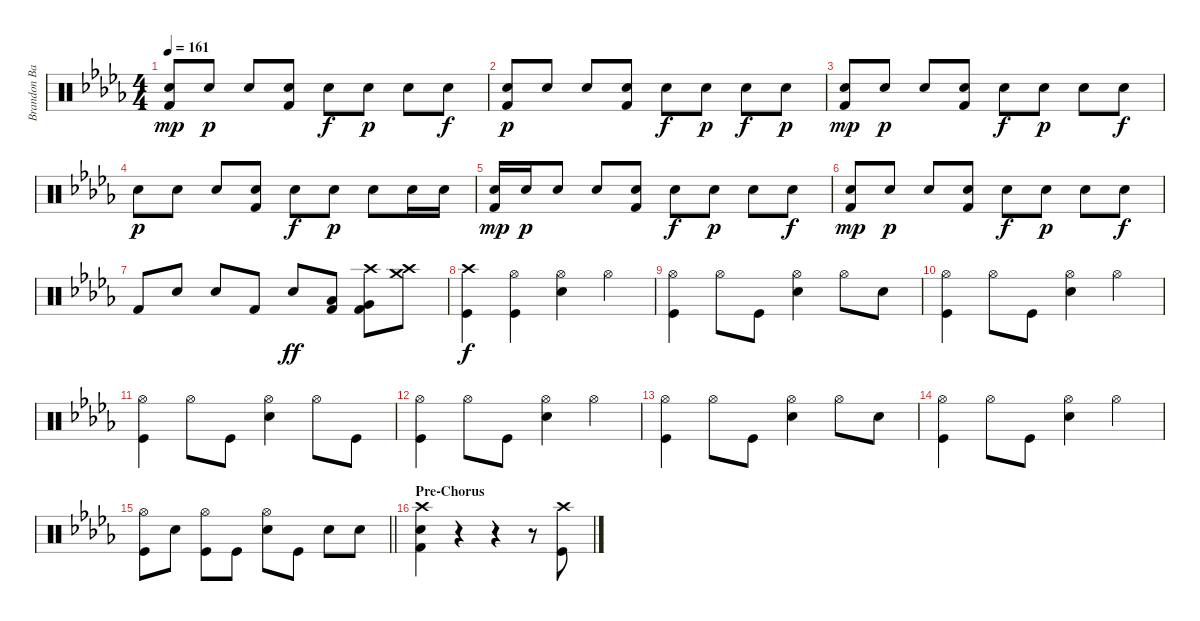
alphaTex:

\track ("Brandon Barnes - Drums" "Brandon Ba") {instrument percussion}
\staff {score}
\articulation defaults
\ts (4 4)
\tempo 161
\clef neutral
\ks db
("Snare (hit) 2" "Kick (hit) 2").8{dy mp} "Snare (hit) 2".8{dy p} "Snare (hit) 2".8 ("Snare (hit) 2" "Kick (hit) 2").8 "Snare (hit) 2".8{dy f} "Snare (hit) 2".8{dy p} "Snare (hit) 2".8 "Snare (hit) 2".8{dy f} |
("Snare (hit) 2" "Kick (hit) 2").8{dy p} "Snare (hit) 2".8 "Snare (hit) 2".8 ("Snare (hit) 2" "Kick (hit) 2").8 "Snare (hit) 2".8{dy f} "Snare (hit) 2".8{dy p} "Snare (hit) 2".8{dy f} "Snare (hit) 2".8{dy p} |
("Snare (hit) 2" "Kick (hit) 2").8{dy mp} "Snare (hit) 2".8{dy p} "Snare (hit) 2".8 ("Snare (hit) 2" "Kick (hit) 2").8 "Snare (hit) 2".8{dy f} "Snare (hit) 2".8{dy p} "Snare (hit) 2".8 "Snare (hit) 2".8{dy f} |
"Snare (hit) 2".8{dy p} "Snare (hit) 2".8 "Snare (hit) 2".8 ("Snare (hit) 2" "Kick (hit) 2").8 "Snare (hit) 2".8{dy f} "Snare (hit) 2".8{dy p} "Snare (hit) 2".8 "Snare (hit) 2".16 "Snare (hit) 2".16 |
("Snare (hit) 2" "Kick (hit) 2").16{dy mp} "Snare (hit) 2".16{dy p} "Snare (hit) 2".8 "Snare (hit) 2".8 ("Snare (hit) 2" "Kick (hit) 2").8 "Snare (hit) 2".8{dy f} "Snare (hit) 2".8{dy p} "Snare (hit) 2".8 "Snare (hit) 2".8{dy f} |
("Snare (hit) 2" "Kick (hit) 2").8{dy mp} "Snare (hit) 2".8{dy p} "Snare (hit) 2".8 ("Snare (hit) 2" "Kick (hit) 2").8 "Snare (hit) 2".8{dy f} "Snare (hit) 2".8{dy p} "Snare (hit) 2".8 "Snare (hit) 2".8{dy f} |
"Kick (hit) 2".8 "Snare (hit) 2".8 "Snare (hit) 2".8 "Kick (hit) 2".8 "Snare (hit) 2".8{dy ff} ("Kick (hit) 2" "Low Tom (hit)").8 ("Kick (hit) 2" "Crash high (hit)" "Very Low Tom (hit)").8 ("Crash medium (hit)" "Crash high (hit)").8 |
("Crash high (hit)" "Kick (hit)").4{dy f} ("Hi-Hat (open)" "Kick (hit)").4 ("Hi-Hat (open)" "Snare (hit) 2").4 "Hi-Hat (open)".4 |
("Hi-Hat (open)" "Kick (hit)").4 "Hi-Hat (open)".8 "Kick (hit)".8 ("Hi-Hat (open)" "Snare (hit) 2").4 "Hi-Hat (open)".8 "Snare (hit) 2".8 |
("Hi-Hat (open)" "Kick (hit)").4 "Hi-Hat (open)".8 "Kick (hit)".8 ("Hi-Hat (open)" "Snare (hit) 2").4 "Hi-Hat (open)".4 |
("Hi-Hat (open)" "Kick (hit)").4 "Hi-Hat (open)".8 "Kick (hit)".8 ("Hi-Hat (open)" "Snare (hit) 2").4 "Hi-Hat (open)".8 "Kick (hit)".8 |
("Hi-Hat (open)" "Kick (hit)").4 "Hi-Hat (open)".8 "Kick (hit)".8 ("Hi-Hat (open)" "Snare (hit) 2").4 "Hi-Hat (open)".4 |
("Hi-Hat (open)" "Kick (hit)").4 "Hi-Hat (open)".8 "Kick (hit)".8 ("Hi-Hat (open)" "Snare (hit) 2").4 "Hi-Hat (open)".8 "Snare (hit) 2".8 |
("Hi-Hat (open)" "Kick (hit)").4 "Hi-Hat (open)".8 "Kick (hit)".8 ("Hi-Hat (open)" "Snare (hit) 2").4 "Hi-Hat (open)".4 |
\barLineRight lightlight
("Hi-Hat (open)" "Kick (hit)").8 "Snare (hit) 2".8 ("Hi-Hat (open)" "Kick (hit)").8 "Kick (hit)".8 ("Hi-Hat (open)" "Snare (hit) 2").8 "Kick (hit)".8 "Snare (hit) 2".8 "Snare (hit) 2".8 |
\section ("" "Pre-Chorus")
("Kick (hit) 2" "Crash high (hit)" "Snare (hit) 2").4 r.4 r.4 r.8 ("Crash high (hit)" "Kick (hit)").8
